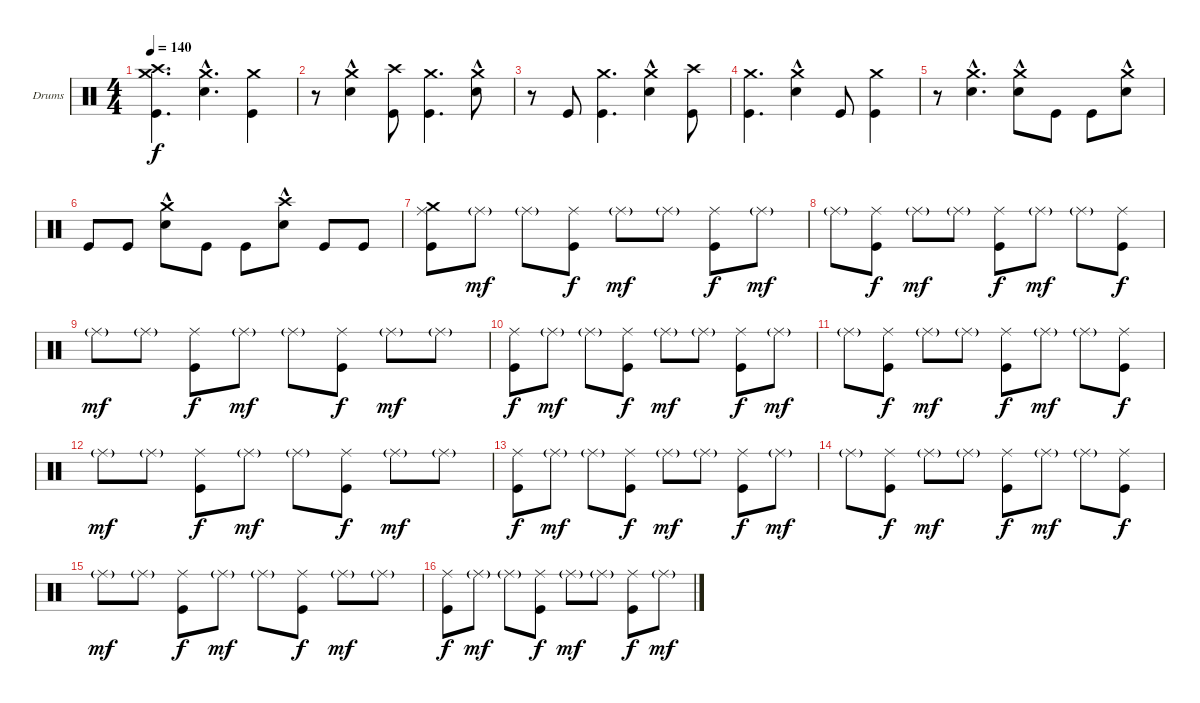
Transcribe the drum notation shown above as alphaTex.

\bracketExtendMode groupsimilarinstruments
\firstSystemTrackNameOrientation horizontal
\otherSystemsTrackNameOrientation horizontal
\track ("Drumkit (Christoph)" "Drums") {instrument percussion}
\staff {score}
\articulation defaults
\ts (4 4)
\tempo 140
\clef neutral
\ks c
("Crash medium (hit)" "Kick (hit)" "Crash high (hit)").4{d dy f} ("Crash medium (hit)" "Snare (hit) 2"{hac}).4{d} ("Crash medium (hit)" "Kick (hit)").4 |
r.8 ("Crash medium (hit)" "Snare (hit) 2"{hac}).4 ("Crash high (hit)" "Kick (hit)").8 ("Crash medium (hit)" "Kick (hit)").4{d} ("Crash medium (hit)" "Snare (hit) 2"{hac}).8 |
r.8 "Kick (hit)".8 ("Crash medium (hit)" "Kick (hit)").4{d} ("Crash medium (hit)" "Snare (hit) 2"{hac}).4 ("Crash high (hit)" "Kick (hit)").8 |
("Crash medium (hit)" "Kick (hit)").4{d} ("Crash medium (hit)" "Snare (hit) 2"{hac}).4 "Kick (hit)".8 ("Crash medium (hit)" "Kick (hit)").4 |
r.8 ("Crash medium (hit)" "Snare (hit) 2"{hac}).4{d} ("Crash medium (hit)" "Snare (hit) 2"{hac}).8 "Kick (hit)".8 "Kick (hit)".8 ("Crash medium (hit)" "Snare (hit) 2"{hac}).8 |
"Kick (hit)".8 "Kick (hit)".8 ("Crash medium (hit)" "Snare (hit) 2"{hac}).8 "Kick (hit)".8 "Kick (hit)".8 ("Crash high (hit)" "Snare (hit) 2"{hac}).8 "Kick (hit)".8 "Kick (hit)".8 |
("Ride (middle)" "Kick (hit)" "Crash medium (hit)").8 "Ride (middle)"{g}.8{dy mf} "Ride (middle)"{g}.8 ("Ride (middle)" "Kick (hit)").8{dy f} "Ride (middle)"{g}.8{dy mf} "Ride (middle)"{g}.8 ("Ride (middle)" "Kick (hit)").8{dy f} "Ride (middle)"{g}.8{dy mf} |
"Ride (middle)"{g}.8 ("Ride (middle)" "Kick (hit)").8{dy f} "Ride (middle)"{g}.8{dy mf} "Ride (middle)"{g}.8 ("Ride (middle)" "Kick (hit)").8{dy f} "Ride (middle)"{g}.8{dy mf} "Ride (middle)"{g}.8 ("Ride (middle)" "Kick (hit)").8{dy f} |
"Ride (middle)"{g}.8{dy mf} "Ride (middle)"{g}.8 ("Ride (middle)" "Kick (hit)").8{dy f} "Ride (middle)"{g}.8{dy mf} "Ride (middle)"{g}.8 ("Ride (middle)" "Kick (hit)").8{dy f} "Ride (middle)"{g}.8{dy mf} "Ride (middle)"{g}.8 |
("Ride (middle)" "Kick (hit)").8{dy f} "Ride (middle)"{g}.8{dy mf} "Ride (middle)"{g}.8 ("Ride (middle)" "Kick (hit)").8{dy f} "Ride (middle)"{g}.8{dy mf} "Ride (middle)"{g}.8 ("Ride (middle)" "Kick (hit)").8{dy f} "Ride (middle)"{g}.8{dy mf} |
"Ride (middle)"{g}.8 ("Ride (middle)" "Kick (hit)").8{dy f} "Ride (middle)"{g}.8{dy mf} "Ride (middle)"{g}.8 ("Ride (middle)" "Kick (hit)").8{dy f} "Ride (middle)"{g}.8{dy mf} "Ride (middle)"{g}.8 ("Ride (middle)" "Kick (hit)").8{dy f} |
"Ride (middle)"{g}.8{dy mf} "Ride (middle)"{g}.8 ("Ride (middle)" "Kick (hit)").8{dy f} "Ride (middle)"{g}.8{dy mf} "Ride (middle)"{g}.8 ("Ride (middle)" "Kick (hit)").8{dy f} "Ride (middle)"{g}.8{dy mf} "Ride (middle)"{g}.8 |
("Ride (middle)" "Kick (hit)").8{dy f} "Ride (middle)"{g}.8{dy mf} "Ride (middle)"{g}.8 ("Ride (middle)" "Kick (hit)").8{dy f} "Ride (middle)"{g}.8{dy mf} "Ride (middle)"{g}.8 ("Ride (middle)" "Kick (hit)").8{dy f} "Ride (middle)"{g}.8{dy mf} |
"Ride (middle)"{g}.8 ("Ride (middle)" "Kick (hit)").8{dy f} "Ride (middle)"{g}.8{dy mf} "Ride (middle)"{g}.8 ("Ride (middle)" "Kick (hit)").8{dy f} "Ride (middle)"{g}.8{dy mf} "Ride (middle)"{g}.8 ("Ride (middle)" "Kick (hit)").8{dy f} |
"Ride (middle)"{g}.8{dy mf} "Ride (middle)"{g}.8 ("Ride (middle)" "Kick (hit)").8{dy f} "Ride (middle)"{g}.8{dy mf} "Ride (middle)"{g}.8 ("Ride (middle)" "Kick (hit)").8{dy f} "Ride (middle)"{g}.8{dy mf} "Ride (middle)"{g}.8 |
("Ride (middle)" "Kick (hit)").8{dy f} "Ride (middle)"{g}.8{dy mf} "Ride (middle)"{g}.8 ("Ride (middle)" "Kick (hit)").8{dy f} "Ride (middle)"{g}.8{dy mf} "Ride (middle)"{g}.8 ("Ride (middle)" "Kick (hit)").8{dy f} "Ride (middle)"{g}.8{dy mf}
